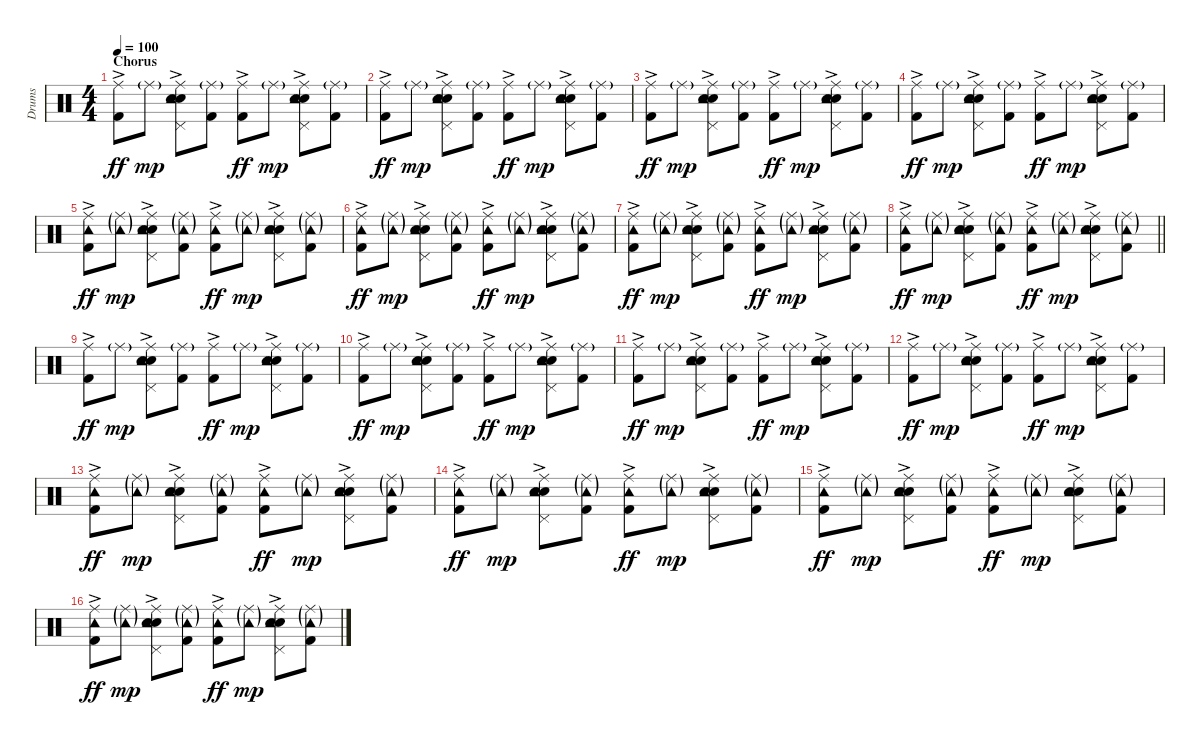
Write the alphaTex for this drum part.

\track ("Drums" "Drums") {instrument percussion}
\staff {score}
\articulation defaults
\ts (4 4)
\section ("" "Chorus")
\tempo 100
\clef neutral
\ks c
("Kick (hit) 2"{ac} "Ride (middle)").8{dy ff} "Ride (middle)"{g}.8{dy mp} ("Electric Snare (hit)"{ac} "Snare (hit) 2" "Pedal Hi-Hat (hit)" "Tambourine (hit)" "Ride (middle)").8 ("Kick (hit) 2" "Ride (middle)"{g}).8 ("Kick (hit) 2"{ac} "Ride (middle)").8{dy ff} "Ride (middle)"{g}.8{dy mp} ("Electric Snare (hit)"{ac} "Snare (hit) 2" "Pedal Hi-Hat (hit)" "Tambourine (hit)" "Ride (middle)").8 ("Kick (hit) 2" "Ride (middle)"{g}).8 |
("Kick (hit) 2"{ac} "Ride (middle)").8{dy ff} "Ride (middle)"{g}.8{dy mp} ("Electric Snare (hit)"{ac} "Snare (hit) 2" "Pedal Hi-Hat (hit)" "Tambourine (hit)" "Ride (middle)").8 ("Kick (hit) 2" "Ride (middle)"{g}).8 ("Kick (hit) 2"{ac} "Ride (middle)").8{dy ff} "Ride (middle)"{g}.8{dy mp} ("Electric Snare (hit)"{ac} "Snare (hit) 2" "Pedal Hi-Hat (hit)" "Tambourine (hit)" "Ride (middle)").8 ("Kick (hit) 2" "Ride (middle)"{g}).8 |
("Kick (hit) 2"{ac} "Ride (middle)").8{dy ff} "Ride (middle)"{g}.8{dy mp} ("Electric Snare (hit)"{ac} "Snare (hit) 2" "Pedal Hi-Hat (hit)" "Tambourine (hit)" "Ride (middle)").8 ("Kick (hit) 2" "Ride (middle)"{g}).8 ("Kick (hit) 2"{ac} "Ride (middle)").8{dy ff} "Ride (middle)"{g}.8{dy mp} ("Electric Snare (hit)"{ac} "Snare (hit) 2" "Pedal Hi-Hat (hit)" "Tambourine (hit)" "Ride (middle)").8 ("Kick (hit) 2" "Ride (middle)"{g}).8 |
("Kick (hit) 2"{ac} "Ride (middle)").8{dy ff} "Ride (middle)"{g}.8{dy mp} ("Electric Snare (hit)"{ac} "Snare (hit) 2" "Pedal Hi-Hat (hit)" "Tambourine (hit)" "Ride (middle)").8 ("Kick (hit) 2" "Ride (middle)"{g}).8 ("Kick (hit) 2"{ac} "Ride (middle)").8{dy ff} "Ride (middle)"{g}.8{dy mp} ("Electric Snare (hit)"{ac} "Snare (hit) 2" "Pedal Hi-Hat (hit)" "Tambourine (hit)" "Ride (middle)").8 ("Kick (hit) 2" "Ride (middle)"{g}).8 |
("Kick (hit) 2"{ac} "Tambourine (hit)" "Ride (middle)").8{dy ff} ("Tambourine (hit)"{g} "Ride (middle)"{g}).8{dy mp} ("Electric Snare (hit)"{ac} "Snare (hit) 2" "Pedal Hi-Hat (hit)" "Tambourine (hit)" "Ride (middle)").8 ("Kick (hit) 2" "Tambourine (hit)"{g} "Ride (middle)"{g}).8 ("Kick (hit) 2"{ac} "Tambourine (hit)" "Ride (middle)").8{dy ff} ("Tambourine (hit)"{g} "Ride (middle)"{g}).8{dy mp} ("Electric Snare (hit)"{ac} "Snare (hit) 2" "Pedal Hi-Hat (hit)" "Tambourine (hit)" "Ride (middle)").8 ("Kick (hit) 2" "Tambourine (hit)"{g} "Ride (middle)"{g}).8 |
("Kick (hit) 2"{ac} "Tambourine (hit)" "Ride (middle)").8{dy ff} ("Tambourine (hit)"{g} "Ride (middle)"{g}).8{dy mp} ("Electric Snare (hit)"{ac} "Snare (hit) 2" "Pedal Hi-Hat (hit)" "Tambourine (hit)" "Ride (middle)").8 ("Kick (hit) 2" "Tambourine (hit)"{g} "Ride (middle)"{g}).8 ("Kick (hit) 2"{ac} "Tambourine (hit)" "Ride (middle)").8{dy ff} ("Tambourine (hit)"{g} "Ride (middle)"{g}).8{dy mp} ("Electric Snare (hit)"{ac} "Snare (hit) 2" "Pedal Hi-Hat (hit)" "Tambourine (hit)" "Ride (middle)").8 ("Kick (hit) 2" "Tambourine (hit)"{g} "Ride (middle)"{g}).8 |
("Kick (hit) 2"{ac} "Tambourine (hit)" "Ride (middle)").8{dy ff} ("Tambourine (hit)"{g} "Ride (middle)"{g}).8{dy mp} ("Electric Snare (hit)"{ac} "Snare (hit) 2" "Pedal Hi-Hat (hit)" "Tambourine (hit)" "Ride (middle)").8 ("Kick (hit) 2" "Tambourine (hit)"{g} "Ride (middle)"{g}).8 ("Kick (hit) 2"{ac} "Tambourine (hit)" "Ride (middle)").8{dy ff} ("Tambourine (hit)"{g} "Ride (middle)"{g}).8{dy mp} ("Electric Snare (hit)"{ac} "Snare (hit) 2" "Pedal Hi-Hat (hit)" "Tambourine (hit)" "Ride (middle)").8 ("Kick (hit) 2" "Tambourine (hit)"{g} "Ride (middle)"{g}).8 |
\barLineRight lightlight
("Kick (hit) 2"{ac} "Tambourine (hit)" "Ride (middle)").8{dy ff} ("Tambourine (hit)"{g} "Ride (middle)"{g}).8{dy mp} ("Electric Snare (hit)"{ac} "Snare (hit) 2" "Pedal Hi-Hat (hit)" "Tambourine (hit)" "Ride (middle)").8 ("Kick (hit) 2" "Tambourine (hit)"{g} "Ride (middle)"{g}).8 ("Kick (hit) 2"{ac} "Tambourine (hit)" "Ride (middle)").8{dy ff} ("Tambourine (hit)"{g} "Ride (middle)"{g}).8{dy mp} ("Electric Snare (hit)"{ac} "Snare (hit) 2" "Pedal Hi-Hat (hit)" "Tambourine (hit)" "Ride (middle)").8 ("Kick (hit) 2" "Tambourine (hit)"{g} "Ride (middle)"{g}).8 |
("Kick (hit) 2"{ac} "Ride (middle)").8{dy ff} "Ride (middle)"{g}.8{dy mp} ("Electric Snare (hit)"{ac} "Snare (hit) 2" "Pedal Hi-Hat (hit)" "Tambourine (hit)" "Ride (middle)").8 ("Kick (hit) 2" "Ride (middle)"{g}).8 ("Kick (hit) 2"{ac} "Ride (middle)").8{dy ff} "Ride (middle)"{g}.8{dy mp} ("Electric Snare (hit)"{ac} "Snare (hit) 2" "Pedal Hi-Hat (hit)" "Tambourine (hit)" "Ride (middle)").8 ("Kick (hit) 2" "Ride (middle)"{g}).8 |
("Kick (hit) 2"{ac} "Ride (middle)").8{dy ff} "Ride (middle)"{g}.8{dy mp} ("Electric Snare (hit)"{ac} "Snare (hit) 2" "Pedal Hi-Hat (hit)" "Tambourine (hit)" "Ride (middle)").8 ("Kick (hit) 2" "Ride (middle)"{g}).8 ("Kick (hit) 2"{ac} "Ride (middle)").8{dy ff} "Ride (middle)"{g}.8{dy mp} ("Electric Snare (hit)"{ac} "Snare (hit) 2" "Pedal Hi-Hat (hit)" "Tambourine (hit)" "Ride (middle)").8 ("Kick (hit) 2" "Ride (middle)"{g}).8 |
("Kick (hit) 2"{ac} "Ride (middle)").8{dy ff} "Ride (middle)"{g}.8{dy mp} ("Electric Snare (hit)"{ac} "Snare (hit) 2" "Pedal Hi-Hat (hit)" "Tambourine (hit)" "Ride (middle)").8 ("Kick (hit) 2" "Ride (middle)"{g}).8 ("Kick (hit) 2"{ac} "Ride (middle)").8{dy ff} "Ride (middle)"{g}.8{dy mp} ("Electric Snare (hit)"{ac} "Snare (hit) 2" "Pedal Hi-Hat (hit)" "Tambourine (hit)" "Ride (middle)").8 ("Kick (hit) 2" "Ride (middle)"{g}).8 |
("Kick (hit) 2"{ac} "Ride (middle)").8{dy ff} "Ride (middle)"{g}.8{dy mp} ("Electric Snare (hit)"{ac} "Snare (hit) 2" "Pedal Hi-Hat (hit)" "Tambourine (hit)" "Ride (middle)").8 ("Kick (hit) 2" "Ride (middle)"{g}).8 ("Kick (hit) 2"{ac} "Ride (middle)").8{dy ff} "Ride (middle)"{g}.8{dy mp} ("Electric Snare (hit)"{ac} "Snare (hit) 2" "Pedal Hi-Hat (hit)" "Tambourine (hit)" "Ride (middle)").8 ("Kick (hit) 2" "Ride (middle)"{g}).8 |
("Kick (hit) 2"{ac} "Tambourine (hit)" "Ride (middle)").8{dy ff} ("Tambourine (hit)"{g} "Ride (middle)"{g}).8{dy mp} ("Electric Snare (hit)"{ac} "Snare (hit) 2" "Pedal Hi-Hat (hit)" "Tambourine (hit)" "Ride (middle)").8 ("Kick (hit) 2" "Tambourine (hit)"{g} "Ride (middle)"{g}).8 ("Kick (hit) 2"{ac} "Tambourine (hit)" "Ride (middle)").8{dy ff} ("Tambourine (hit)"{g} "Ride (middle)"{g}).8{dy mp} ("Electric Snare (hit)"{ac} "Snare (hit) 2" "Pedal Hi-Hat (hit)" "Tambourine (hit)" "Ride (middle)").8 ("Kick (hit) 2" "Tambourine (hit)"{g} "Ride (middle)"{g}).8 |
("Kick (hit) 2"{ac} "Tambourine (hit)" "Ride (middle)").8{dy ff} ("Tambourine (hit)"{g} "Ride (middle)"{g}).8{dy mp} ("Electric Snare (hit)"{ac} "Snare (hit) 2" "Pedal Hi-Hat (hit)" "Tambourine (hit)" "Ride (middle)").8 ("Kick (hit) 2" "Tambourine (hit)"{g} "Ride (middle)"{g}).8 ("Kick (hit) 2"{ac} "Tambourine (hit)" "Ride (middle)").8{dy ff} ("Tambourine (hit)"{g} "Ride (middle)"{g}).8{dy mp} ("Electric Snare (hit)"{ac} "Snare (hit) 2" "Pedal Hi-Hat (hit)" "Tambourine (hit)" "Ride (middle)").8 ("Kick (hit) 2" "Tambourine (hit)"{g} "Ride (middle)"{g}).8 |
("Kick (hit) 2"{ac} "Tambourine (hit)" "Ride (middle)").8{dy ff} ("Tambourine (hit)"{g} "Ride (middle)"{g}).8{dy mp} ("Electric Snare (hit)"{ac} "Snare (hit) 2" "Pedal Hi-Hat (hit)" "Tambourine (hit)" "Ride (middle)").8 ("Kick (hit) 2" "Tambourine (hit)"{g} "Ride (middle)"{g}).8 ("Kick (hit) 2"{ac} "Tambourine (hit)" "Ride (middle)").8{dy ff} ("Tambourine (hit)"{g} "Ride (middle)"{g}).8{dy mp} ("Electric Snare (hit)"{ac} "Snare (hit) 2" "Pedal Hi-Hat (hit)" "Tambourine (hit)" "Ride (middle)").8 ("Kick (hit) 2" "Tambourine (hit)"{g} "Ride (middle)"{g}).8 |
("Kick (hit) 2"{ac} "Tambourine (hit)" "Ride (middle)").8{dy ff} ("Tambourine (hit)"{g} "Ride (middle)"{g}).8{dy mp} ("Electric Snare (hit)"{ac} "Snare (hit) 2" "Pedal Hi-Hat (hit)" "Tambourine (hit)" "Ride (middle)").8 ("Kick (hit) 2" "Tambourine (hit)"{g} "Ride (middle)"{g}).8 ("Kick (hit) 2"{ac} "Tambourine (hit)" "Ride (middle)").8{dy ff} ("Tambourine (hit)"{g} "Ride (middle)"{g}).8{dy mp} ("Electric Snare (hit)"{ac} "Snare (hit) 2" "Pedal Hi-Hat (hit)" "Tambourine (hit)" "Ride (middle)").8 ("Kick (hit) 2" "Tambourine (hit)"{g} "Ride (middle)"{g}).8
